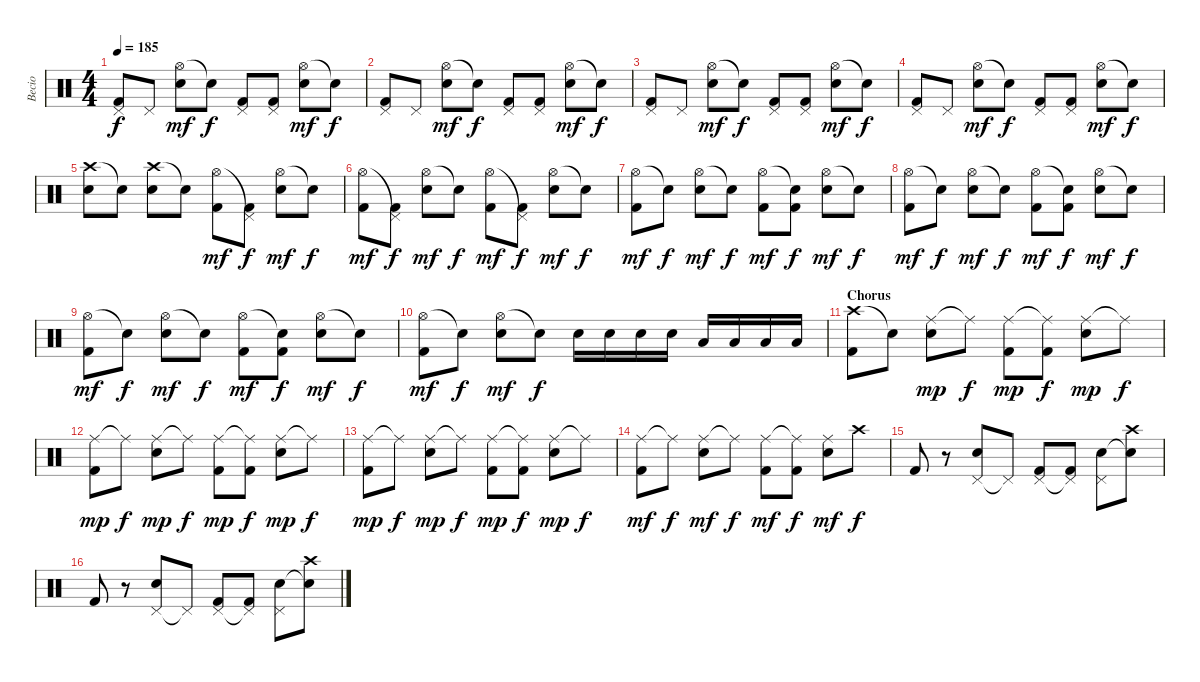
\track ("Becio" "Becio") {instrument percussion}
\staff {score}
\articulation defaults
\ts (4 4)
\tempo 185
\clef neutral
\ks c
("Pedal Hi-Hat (hit)" "Kick (hit) 2").8{dy f} "Pedal Hi-Hat (hit)".8 ("Hi-Hat (open)" "Electric Snare (hit)").8{dy mf} "Snare (hit)"{t}.8{dy f} ("Pedal Hi-Hat (hit)" "Kick (hit) 2").8 ("Pedal Hi-Hat (hit)" "Kick (hit) 2").8 ("Hi-Hat (open)" "Electric Snare (hit)").8{dy mf} "Snare (hit)"{t}.8{dy f} |
("Pedal Hi-Hat (hit)" "Kick (hit) 2").8 "Pedal Hi-Hat (hit)".8 ("Hi-Hat (open)" "Electric Snare (hit)").8{dy mf} "Snare (hit)"{t}.8{dy f} ("Pedal Hi-Hat (hit)" "Kick (hit) 2").8 ("Pedal Hi-Hat (hit)" "Kick (hit) 2").8 ("Hi-Hat (open)" "Electric Snare (hit)").8{dy mf} "Snare (hit)"{t}.8{dy f} |
("Pedal Hi-Hat (hit)" "Kick (hit) 2").8 "Pedal Hi-Hat (hit)".8 ("Hi-Hat (open)" "Electric Snare (hit)").8{dy mf} "Snare (hit)"{t}.8{dy f} ("Pedal Hi-Hat (hit)" "Kick (hit) 2").8 ("Pedal Hi-Hat (hit)" "Kick (hit) 2").8 ("Hi-Hat (open)" "Electric Snare (hit)").8{dy mf} "Snare (hit)"{t}.8{dy f} |
("Pedal Hi-Hat (hit)" "Kick (hit) 2").8 "Pedal Hi-Hat (hit)".8 ("Hi-Hat (open)" "Electric Snare (hit)").8{dy mf} "Snare (hit)"{t}.8{dy f} ("Pedal Hi-Hat (hit)" "Kick (hit) 2").8 ("Pedal Hi-Hat (hit)" "Kick (hit) 2").8 ("Hi-Hat (open)" "Electric Snare (hit)").8{dy mf} "Snare (hit)"{t}.8{dy f} |
("Crash high (hit)" "Electric Snare (hit)").8 "Snare (hit)"{t}.8 ("Crash high (hit)" "Electric Snare (hit)").8 "Snare (hit)"{t}.8 ("Hi-Hat (open)" "Kick (hit) 2").8{dy mf} ("Pedal Hi-Hat (hit)"{t} "Kick (hit) 2").8{dy f} ("Hi-Hat (open)" "Electric Snare (hit)").8{dy mf} "Snare (hit)"{t}.8{dy f} |
("Hi-Hat (open)" "Kick (hit) 2").8{dy mf} ("Pedal Hi-Hat (hit)"{t} "Kick (hit) 2").8{dy f} ("Hi-Hat (open)" "Electric Snare (hit)").8{dy mf} "Snare (hit)"{t}.8{dy f} ("Hi-Hat (open)" "Kick (hit) 2").8{dy mf} ("Pedal Hi-Hat (hit)"{t} "Kick (hit) 2").8{dy f} ("Hi-Hat (open)" "Electric Snare (hit)").8{dy mf} "Snare (hit)"{t}.8{dy f} |
("Hi-Hat (open)" "Kick (hit) 2").8{dy mf} "Snare (hit)"{t}.8{dy f} ("Hi-Hat (open)" "Electric Snare (hit)").8{dy mf} "Snare (hit)"{t}.8{dy f} ("Hi-Hat (open)" "Kick (hit) 2").8{dy mf} ("Snare (hit)"{t} "Kick (hit) 2").8{dy f} ("Hi-Hat (open)" "Electric Snare (hit)").8{dy mf} "Snare (hit)"{t}.8{dy f} |
("Hi-Hat (open)" "Kick (hit) 2").8{dy mf} "Snare (hit)"{t}.8{dy f} ("Hi-Hat (open)" "Electric Snare (hit)").8{dy mf} "Snare (hit)"{t}.8{dy f} ("Hi-Hat (open)" "Kick (hit) 2").8{dy mf} ("Snare (hit)"{t} "Kick (hit) 2").8{dy f} ("Hi-Hat (open)" "Electric Snare (hit)").8{dy mf} "Snare (hit)"{t}.8{dy f} |
("Hi-Hat (open)" "Kick (hit) 2").8{dy mf} "Snare (hit)"{t}.8{dy f} ("Hi-Hat (open)" "Electric Snare (hit)").8{dy mf} "Snare (hit)"{t}.8{dy f} ("Hi-Hat (open)" "Kick (hit) 2").8{dy mf} ("Snare (hit)"{t} "Kick (hit) 2").8{dy f} ("Hi-Hat (open)" "Electric Snare (hit)").8{dy mf} "Snare (hit)"{t}.8{dy f} |
("Hi-Hat (open)" "Kick (hit) 2").8{dy mf} "Snare (hit)"{t}.8{dy f} ("Hi-Hat (open)" "Electric Snare (hit)").8{dy mf} "Snare (hit)"{t}.8{dy f} "Electric Snare (hit)".16 "Electric Snare (hit)".16 "Electric Snare (hit)".16 "Electric Snare (hit)".16 "Low Tom (hit)".16 "Low Tom (hit)".16 "Low Tom (hit)".16 "Low Tom (hit)".16 |
\section ("" "Chorus")
("Crash high (hit)" "Kick (hit) 2").8 "Snare (hit)"{t}.8 ("Ride (middle)" "Electric Snare (hit)").8{dy mp} "Ride (middle)"{t}.8{dy f} ("Ride (middle)" "Kick (hit) 2").8{dy mp} ("Ride (middle)"{t} "Kick (hit) 2").8{dy f} ("Ride (middle)" "Electric Snare (hit)").8{dy mp} "Ride (middle)"{t}.8{dy f} |
("Ride (middle)" "Kick (hit) 2").8{dy mp} "Ride (middle)"{t}.8{dy f} ("Ride (middle)" "Electric Snare (hit)").8{dy mp} "Ride (middle)"{t}.8{dy f} ("Ride (middle)" "Kick (hit) 2").8{dy mp} ("Ride (middle)"{t} "Kick (hit) 2").8{dy f} ("Ride (middle)" "Electric Snare (hit)").8{dy mp} "Ride (middle)"{t}.8{dy f} |
("Ride (middle)" "Kick (hit) 2").8{dy mp} "Ride (middle)"{t}.8{dy f} ("Ride (middle)" "Electric Snare (hit)").8{dy mp} "Ride (middle)"{t}.8{dy f} ("Ride (middle)" "Kick (hit) 2").8{dy mp} ("Ride (middle)"{t} "Kick (hit) 2").8{dy f} ("Ride (middle)" "Electric Snare (hit)").8{dy mp} "Ride (middle)"{t}.8{dy f} |
("Ride (middle)" "Kick (hit) 2").8{dy mf} "Ride (middle)"{t}.8{dy f} ("Ride (middle)" "Electric Snare (hit)").8{dy mf} "Ride (middle)"{t}.8{dy f} ("Ride (middle)" "Kick (hit) 2").8{dy mf} ("Ride (middle)"{t} "Kick (hit) 2").8{dy f} ("Ride (middle)" "Electric Snare (hit)").8{dy mf} "Crash high (hit)".8{dy f} |
"Kick (hit) 2".8 r.8 ("Pedal Hi-Hat (hit)" "Electric Snare (hit)").8 "Pedal Hi-Hat (hit)"{t}.8 ("Pedal Hi-Hat (hit)" "Kick (hit) 2").8 ("Pedal Hi-Hat (hit)"{t} "Kick (hit) 2").8 ("Pedal Hi-Hat (hit)" "Electric Snare (hit)").8 ("Crash high (hit)" "Snare (hit)"{t}).8 |
"Kick (hit) 2".8 r.8 ("Pedal Hi-Hat (hit)" "Electric Snare (hit)").8 "Pedal Hi-Hat (hit)"{t}.8 ("Pedal Hi-Hat (hit)" "Kick (hit) 2").8 ("Pedal Hi-Hat (hit)"{t} "Kick (hit) 2").8 ("Pedal Hi-Hat (hit)" "Electric Snare (hit)").8 ("Crash high (hit)" "Snare (hit)"{t}).8
